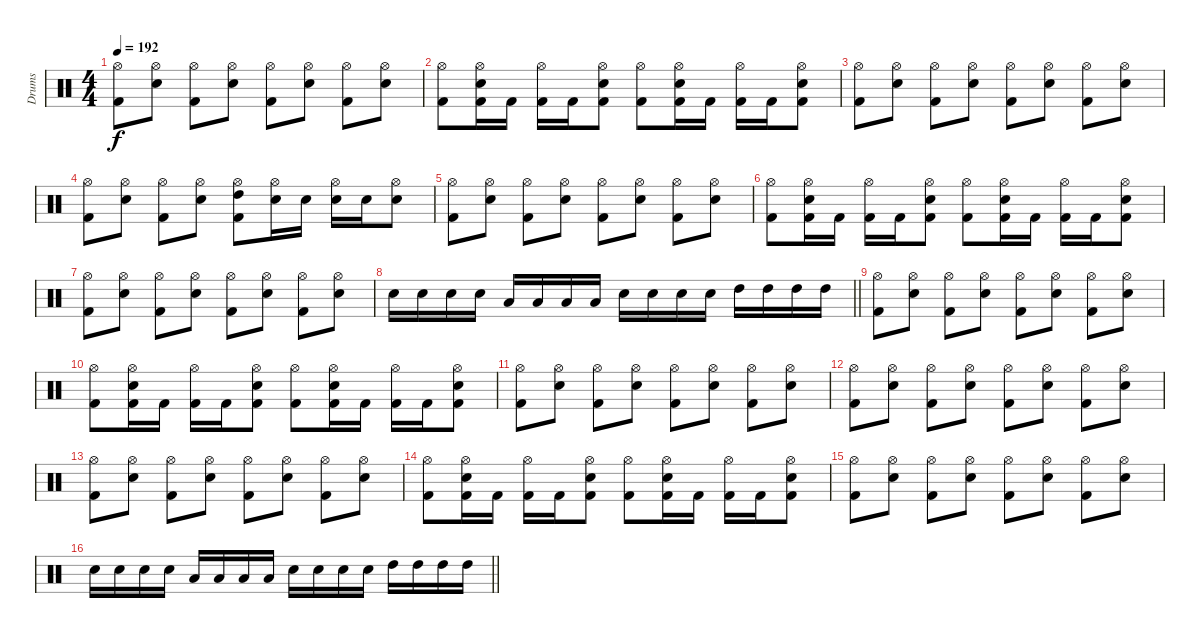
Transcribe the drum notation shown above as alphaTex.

\track ("Drums" "Drums") {instrument percussion}
\staff {score}
\articulation defaults
\ts (4 4)
\tempo 192
\clef neutral
\ks c
("Hi-Hat (open)" "Kick (hit) 2").8{dy f} ("Hi-Hat (open)" "Electric Snare (hit)").8 ("Hi-Hat (open)" "Kick (hit) 2").8 ("Hi-Hat (open)" "Electric Snare (hit)").8 ("Hi-Hat (open)" "Kick (hit) 2").8 ("Hi-Hat (open)" "Electric Snare (hit)").8 ("Hi-Hat (open)" "Kick (hit) 2").8 ("Hi-Hat (open)" "Electric Snare (hit)").8 |
("Hi-Hat (open)" "Kick (hit) 2").8 ("Hi-Hat (open)" "Electric Snare (hit)" "Kick (hit) 2").16 "Kick (hit) 2".16 ("Hi-Hat (open)" "Kick (hit) 2").16 "Kick (hit) 2".16 ("Hi-Hat (open)" "Electric Snare (hit)" "Kick (hit) 2").8 ("Hi-Hat (open)" "Kick (hit) 2").8 ("Hi-Hat (open)" "Electric Snare (hit)" "Kick (hit) 2").16 "Kick (hit) 2".16 ("Hi-Hat (open)" "Kick (hit) 2").16 "Kick (hit) 2".16 ("Hi-Hat (open)" "Electric Snare (hit)" "Kick (hit) 2").8 |
("Hi-Hat (open)" "Kick (hit) 2").8 ("Hi-Hat (open)" "Electric Snare (hit)").8 ("Hi-Hat (open)" "Kick (hit) 2").8 ("Hi-Hat (open)" "Electric Snare (hit)").8 ("Hi-Hat (open)" "Kick (hit) 2").8 ("Hi-Hat (open)" "Electric Snare (hit)").8 ("Hi-Hat (open)" "Kick (hit) 2").8 ("Hi-Hat (open)" "Electric Snare (hit)").8 |
("Hi-Hat (open)" "Kick (hit) 2").8 ("Hi-Hat (open)" "Electric Snare (hit)").8 ("Hi-Hat (open)" "Kick (hit) 2").8 ("Hi-Hat (open)" "Electric Snare (hit)").8 ("Hi-Hat (open)" "High Tom (hit)" "Kick (hit) 2").8 ("Hi-Hat (open)" "Electric Snare (hit)").16 "Electric Snare (hit)".16 ("Hi-Hat (open)" "Electric Snare (hit)").16 "Electric Snare (hit)".16 ("Hi-Hat (open)" "Electric Snare (hit)").8 |
("Hi-Hat (open)" "Kick (hit) 2").8 ("Hi-Hat (open)" "Electric Snare (hit)").8 ("Hi-Hat (open)" "Kick (hit) 2").8 ("Hi-Hat (open)" "Electric Snare (hit)").8 ("Hi-Hat (open)" "Kick (hit) 2").8 ("Hi-Hat (open)" "Electric Snare (hit)").8 ("Hi-Hat (open)" "Kick (hit) 2").8 ("Hi-Hat (open)" "Electric Snare (hit)").8 |
("Hi-Hat (open)" "Kick (hit) 2").8 ("Hi-Hat (open)" "Electric Snare (hit)" "Kick (hit) 2").16 "Kick (hit) 2".16 ("Hi-Hat (open)" "Kick (hit) 2").16 "Kick (hit) 2".16 ("Hi-Hat (open)" "Electric Snare (hit)" "Kick (hit) 2").8 ("Hi-Hat (open)" "Kick (hit) 2").8 ("Hi-Hat (open)" "Electric Snare (hit)" "Kick (hit) 2").16 "Kick (hit) 2".16 ("Hi-Hat (open)" "Kick (hit) 2").16 "Kick (hit) 2".16 ("Hi-Hat (open)" "Electric Snare (hit)" "Kick (hit) 2").8 |
("Hi-Hat (open)" "Kick (hit) 2").8 ("Hi-Hat (open)" "Electric Snare (hit)").8 ("Hi-Hat (open)" "Kick (hit) 2").8 ("Hi-Hat (open)" "Electric Snare (hit)").8 ("Hi-Hat (open)" "Kick (hit) 2").8 ("Hi-Hat (open)" "Electric Snare (hit)").8 ("Hi-Hat (open)" "Kick (hit) 2").8 ("Hi-Hat (open)" "Electric Snare (hit)").8 |
\barLineRight lightlight "Electric Snare (hit)".16 "Electric Snare (hit)".16 "Electric Snare (hit)".16 "Electric Snare (hit)".16 "Low Tom (hit)".16 "Low Tom (hit)".16 "Low Tom (hit)".16 "Low Tom (hit)".16 "Electric Snare (hit)".16 "Electric Snare (hit)".16 "Electric Snare (hit)".16 "Electric Snare (hit)".16 "High Tom (hit)".16 "High Tom (hit)".16 "High Tom (hit)".16 "High Tom (hit)".16
|
\section ("" "")
("Hi-Hat (open)" "Kick (hit) 2").8 ("Hi-Hat (open)" "Electric Snare (hit)").8 ("Hi-Hat (open)" "Kick (hit) 2").8 ("Hi-Hat (open)" "Electric Snare (hit)").8 ("Hi-Hat (open)" "Kick (hit) 2").8 ("Hi-Hat (open)" "Electric Snare (hit)").8 ("Hi-Hat (open)" "Kick (hit) 2").8 ("Hi-Hat (open)" "Electric Snare (hit)").8 |
("Hi-Hat (open)" "Kick (hit) 2").8 ("Hi-Hat (open)" "Electric Snare (hit)" "Kick (hit) 2").16 "Kick (hit) 2".16 ("Hi-Hat (open)" "Kick (hit) 2").16 "Kick (hit) 2".16 ("Hi-Hat (open)" "Electric Snare (hit)" "Kick (hit) 2").8 ("Hi-Hat (open)" "Kick (hit) 2").8 ("Hi-Hat (open)" "Electric Snare (hit)" "Kick (hit) 2").16 "Kick (hit) 2".16 ("Hi-Hat (open)" "Kick (hit) 2").16 "Kick (hit) 2".16 ("Hi-Hat (open)" "Electric Snare (hit)" "Kick (hit) 2").8 |
("Hi-Hat (open)" "Kick (hit) 2").8 ("Hi-Hat (open)" "Electric Snare (hit)").8 ("Hi-Hat (open)" "Kick (hit) 2").8 ("Hi-Hat (open)" "Electric Snare (hit)").8 ("Hi-Hat (open)" "Kick (hit) 2").8 ("Hi-Hat (open)" "Electric Snare (hit)").8 ("Hi-Hat (open)" "Kick (hit) 2").8 ("Hi-Hat (open)" "Electric Snare (hit)").8 |
("Hi-Hat (open)" "Kick (hit) 2").8 ("Hi-Hat (open)" "Electric Snare (hit)").8 ("Hi-Hat (open)" "Kick (hit) 2").8 ("Hi-Hat (open)" "Electric Snare (hit)").8 ("Hi-Hat (open)" "Kick (hit) 2").8 ("Hi-Hat (open)" "Electric Snare (hit)").8 ("Hi-Hat (open)" "Kick (hit) 2").8 ("Hi-Hat (open)" "Electric Snare (hit)").8 |
("Hi-Hat (open)" "Kick (hit) 2").8 ("Hi-Hat (open)" "Electric Snare (hit)").8 ("Hi-Hat (open)" "Kick (hit) 2").8 ("Hi-Hat (open)" "Electric Snare (hit)").8 ("Hi-Hat (open)" "Kick (hit) 2").8 ("Hi-Hat (open)" "Electric Snare (hit)").8 ("Hi-Hat (open)" "Kick (hit) 2").8 ("Hi-Hat (open)" "Electric Snare (hit)").8 |
("Hi-Hat (open)" "Kick (hit) 2").8 ("Hi-Hat (open)" "Electric Snare (hit)" "Kick (hit) 2").16 "Kick (hit) 2".16 ("Hi-Hat (open)" "Kick (hit) 2").16 "Kick (hit) 2".16 ("Hi-Hat (open)" "Electric Snare (hit)" "Kick (hit) 2").8 ("Hi-Hat (open)" "Kick (hit) 2").8 ("Hi-Hat (open)" "Electric Snare (hit)" "Kick (hit) 2").16 "Kick (hit) 2".16 ("Hi-Hat (open)" "Kick (hit) 2").16 "Kick (hit) 2".16 ("Hi-Hat (open)" "Electric Snare (hit)" "Kick (hit) 2").8 |
("Hi-Hat (open)" "Kick (hit) 2").8 ("Hi-Hat (open)" "Electric Snare (hit)").8 ("Hi-Hat (open)" "Kick (hit) 2").8 ("Hi-Hat (open)" "Electric Snare (hit)").8 ("Hi-Hat (open)" "Kick (hit) 2").8 ("Hi-Hat (open)" "Electric Snare (hit)").8 ("Hi-Hat (open)" "Kick (hit) 2").8 ("Hi-Hat (open)" "Electric Snare (hit)").8 |
\barLineRight lightlight "Electric Snare (hit)".16 "Electric Snare (hit)".16 "Electric Snare (hit)".16 "Electric Snare (hit)".16 "Low Tom (hit)".16 "Low Tom (hit)".16 "Low Tom (hit)".16 "Low Tom (hit)".16 "Electric Snare (hit)".16 "Electric Snare (hit)".16 "Electric Snare (hit)".16 "Electric Snare (hit)".16 "High Tom (hit)".16 "High Tom (hit)".16 "High Tom (hit)".16 "High Tom (hit)".16
